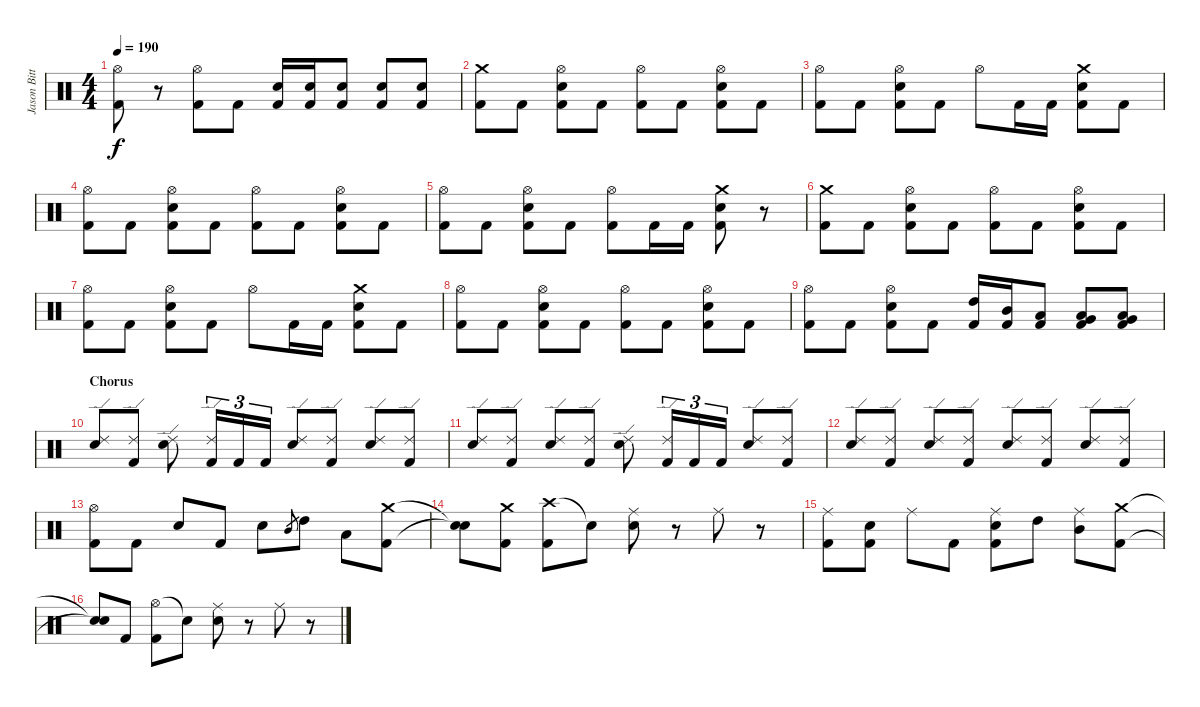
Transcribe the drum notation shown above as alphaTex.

\track ("Jason Bittner" "Jason Bitt") {instrument percussion}
\staff {score}
\articulation defaults
\ts (4 4)
\tempo 190
\clef neutral
\ks c
("Hi-Hat (open)" "Kick (hit) 2").8{dy f} r.8 ("Hi-Hat (open)" "Kick (hit) 2").8 "Kick (hit) 2".8 ("Snare (hit) 2" "Kick (hit) 2").16 ("Snare (hit) 2" "Kick (hit) 2").16 ("Snare (hit) 2" "Kick (hit) 2").8 ("Snare (hit) 2" "Kick (hit) 2").8 ("Snare (hit) 2" "Kick (hit) 2").8 |
("Crash medium (hit)" "Kick (hit) 2").8 "Kick (hit) 2".8 ("Hi-Hat (open)" "Snare (hit) 2" "Kick (hit) 2").8 "Kick (hit) 2".8 ("Hi-Hat (open)" "Kick (hit) 2").8 "Kick (hit) 2".8 ("Hi-Hat (open)" "Snare (hit) 2" "Kick (hit) 2").8 "Kick (hit) 2".8 |
("Hi-Hat (open)" "Kick (hit) 2").8 "Kick (hit) 2".8 ("Hi-Hat (open)" "Snare (hit) 2" "Kick (hit) 2").8 "Kick (hit) 2".8 "Hi-Hat (open)".8 "Kick (hit) 2".16 "Kick (hit) 2".16 ("Crash medium (hit)" "Snare (hit) 2" "Kick (hit) 2").8 "Kick (hit) 2".8 |
("Hi-Hat (open)" "Kick (hit) 2").8 "Kick (hit) 2".8 ("Hi-Hat (open)" "Snare (hit) 2" "Kick (hit) 2").8 "Kick (hit) 2".8 ("Hi-Hat (open)" "Kick (hit) 2").8 "Kick (hit) 2".8 ("Hi-Hat (open)" "Snare (hit) 2" "Kick (hit) 2").8 "Kick (hit) 2".8 |
("Hi-Hat (open)" "Kick (hit) 2").8 "Kick (hit) 2".8 ("Hi-Hat (open)" "Snare (hit) 2" "Kick (hit) 2").8 "Kick (hit) 2".8 ("Hi-Hat (open)" "Kick (hit) 2").8 "Kick (hit) 2".16 "Kick (hit) 2".16 ("Crash medium (hit)" "Snare (hit) 2" "Kick (hit) 2").8 r.8 |
("Crash medium (hit)" "Kick (hit) 2").8 "Kick (hit) 2".8 ("Hi-Hat (open)" "Snare (hit) 2" "Kick (hit) 2").8 "Kick (hit) 2".8 ("Hi-Hat (open)" "Kick (hit) 2").8 "Kick (hit) 2".8 ("Hi-Hat (open)" "Snare (hit) 2" "Kick (hit) 2").8 "Kick (hit) 2".8 |
("Hi-Hat (open)" "Kick (hit) 2").8 "Kick (hit) 2".8 ("Hi-Hat (open)" "Snare (hit) 2" "Kick (hit) 2").8 "Kick (hit) 2".8 "Hi-Hat (open)".8 "Kick (hit) 2".16 "Kick (hit) 2".16 ("Crash medium (hit)" "Snare (hit) 2" "Kick (hit) 2").8 "Kick (hit) 2".8 |
("Hi-Hat (open)" "Kick (hit) 2").8 "Kick (hit) 2".8 ("Hi-Hat (open)" "Snare (hit) 2" "Kick (hit) 2").8 "Kick (hit) 2".8 ("Hi-Hat (open)" "Kick (hit) 2").8 "Kick (hit) 2".8 ("Hi-Hat (open)" "Snare (hit) 2" "Kick (hit) 2").8 "Kick (hit) 2".8 |
("Hi-Hat (open)" "Kick (hit) 2").8 "Kick (hit) 2".8 ("Hi-Hat (open)" "Snare (hit) 2" "Kick (hit) 2").8 "Kick (hit) 2".8 ("High Tom (hit)" "Kick (hit) 2").16 ("Mid Tom (hit)" "Kick (hit) 2").16 ("Low Tom (hit)" "Kick (hit) 2").8 ("Low Floor Tom (hit)" "Very Low Tom (hit)" "Kick (hit) 2").8 ("Low Floor Tom (hit)" "Very Low Tom (hit)" "Kick (hit) 2").8 |
\section ("" "Chorus")
("Ride (edge) 2" "Snare (hit) 2").8 ("Ride (edge) 2" "Kick (hit) 2").8 ("Ride (edge) 2" "Snare (hit) 2").8 ("Ride (edge) 2" "Kick (hit) 2").16{tu (3 2)} "Kick (hit) 2".16{tu (3 2)} "Kick (hit) 2".16{tu (3 2)} ("Ride (edge) 2" "Snare (hit) 2").8 ("Ride (edge) 2" "Kick (hit) 2").8 ("Ride (edge) 2" "Snare (hit) 2").8 ("Ride (edge) 2" "Kick (hit) 2").8 |
("Ride (edge) 2" "Snare (hit) 2").8 ("Ride (edge) 2" "Kick (hit) 2").8 ("Ride (edge) 2" "Snare (hit) 2").8 ("Ride (edge) 2" "Kick (hit) 2").8 ("Ride (edge) 2" "Snare (hit) 2").8 ("Ride (edge) 2" "Kick (hit) 2").16{tu (3 2)} "Kick (hit) 2".16{tu (3 2)} "Kick (hit) 2".16{tu (3 2)} ("Ride (edge) 2" "Snare (hit) 2").8 ("Ride (edge) 2" "Kick (hit) 2").8 |
("Ride (edge) 2" "Snare (hit) 2").8 ("Ride (edge) 2" "Kick (hit) 2").8 ("Ride (edge) 2" "Snare (hit) 2").8 ("Ride (edge) 2" "Kick (hit) 2").8 ("Ride (edge) 2" "Snare (hit) 2").8 ("Ride (edge) 2" "Kick (hit) 2").8 ("Ride (edge) 2" "Snare (hit) 2").8 ("Ride (edge) 2" "Kick (hit) 2").8 |
("Hi-Hat (open)" "Kick (hit) 2").8 "Kick (hit) 2".8 "Snare (hit) 2".8 "Kick (hit) 2".8 "Snare (hit) 2".8 "Mid Tom (hit)".8{gr} "High Tom (hit)".8 "Low Tom (hit)".8 ("Crash medium (hit)" "Kick (hit) 2").8 |
("Snare (hit)"{t} "Snare (hit)"{t}).8 ("Crash medium (hit)" "Kick (hit) 2").8 ("Crash high (hit)" "Kick (hit) 2").8 "Snare (hit)"{t}.8 ("Ride (middle)" "Snare (hit) 2").8 r.8 "Ride (middle)".8 r.8 |
("Ride (middle)" "Kick (hit) 2").8 ("Snare (hit) 2" "Kick (hit) 2").8 "Ride (middle)".8 "Kick (hit) 2".8 ("Ride (middle)" "Snare (hit) 2" "Kick (hit) 2").8 "High Tom (hit)".8 ("Ride (middle)" "Mid Tom (hit)").8 ("Crash medium (hit)" "Kick (hit) 2").8 |
("Snare (hit)"{t} "Snare (hit)"{t}).8 "Kick (hit) 2".8 ("Hi-Hat (open)" "Kick (hit) 2").8 "Snare (hit)"{t}.8 ("Ride (middle)" "Snare (hit) 2").8 r.8 "Ride (middle)".8 r.8
